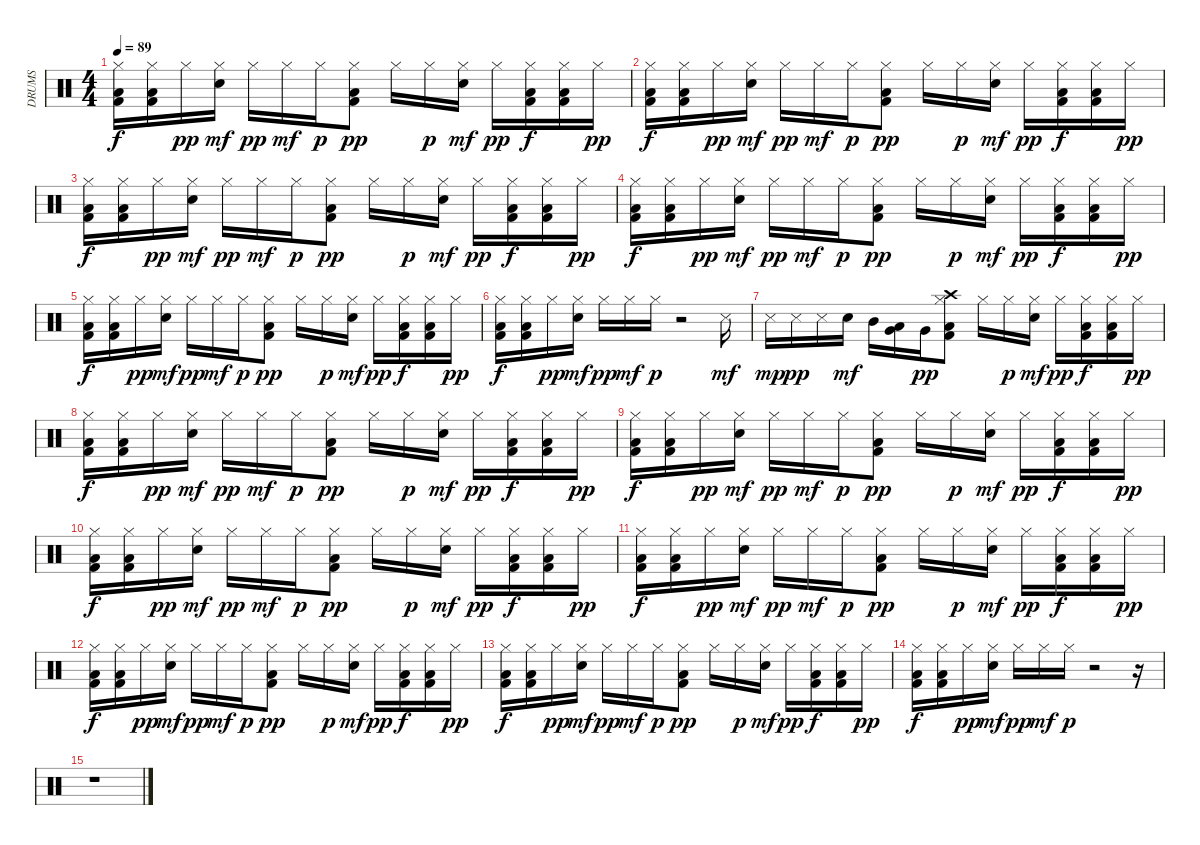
\track ("DRUMS" "DRUMS") {instrument percussion}
\staff {score}
\articulation defaults
\ts (4 4)
\tempo 89
\clef neutral
\ks c
("Kick (hit) 2" "Low Floor Tom (hit)" "Hi-Hat (closed)").16{dy f} ("Kick (hit) 2" "Low Floor Tom (hit)" "Hi-Hat (closed)").16 "Hi-Hat (closed)".16{dy pp} ("Hand Clap (hit)" "Hi-Hat (closed)").16{dy mf} "Hi-Hat (closed)".16{dy pp} "Hi-Hat (closed)".16{dy mf} "Hi-Hat (closed)".16{dy p} ("Hi-Hat (closed)" "Kick (hit) 2" "Low Floor Tom (hit)").8{dy pp} "Hi-Hat (closed)".16 "Hi-Hat (closed)".16{dy p} ("Hand Clap (hit)" "Hi-Hat (closed)").16{dy mf} "Hi-Hat (closed)".16{dy pp} ("Kick (hit) 2" "Low Floor Tom (hit)" "Hi-Hat (closed)").16{dy f} ("Kick (hit) 2" "Low Floor Tom (hit)" "Hi-Hat (closed)").16 "Hi-Hat (closed)".16{dy pp} |
("Kick (hit) 2" "Low Floor Tom (hit)" "Hi-Hat (closed)").16{dy f} ("Kick (hit) 2" "Low Floor Tom (hit)" "Hi-Hat (closed)").16 "Hi-Hat (closed)".16{dy pp} ("Hand Clap (hit)" "Hi-Hat (closed)").16{dy mf} "Hi-Hat (closed)".16{dy pp} "Hi-Hat (closed)".16{dy mf} "Hi-Hat (closed)".16{dy p} ("Hi-Hat (closed)" "Kick (hit) 2" "Low Floor Tom (hit)").8{dy pp} "Hi-Hat (closed)".16 "Hi-Hat (closed)".16{dy p} ("Hand Clap (hit)" "Hi-Hat (closed)").16{dy mf} "Hi-Hat (closed)".16{dy pp} ("Kick (hit) 2" "Low Floor Tom (hit)" "Hi-Hat (closed)").16{dy f} ("Kick (hit) 2" "Low Floor Tom (hit)" "Hi-Hat (closed)").16 "Hi-Hat (closed)".16{dy pp} |
("Kick (hit) 2" "Low Floor Tom (hit)" "Hi-Hat (closed)").16{dy f} ("Kick (hit) 2" "Low Floor Tom (hit)" "Hi-Hat (closed)").16 "Hi-Hat (closed)".16{dy pp} ("Hand Clap (hit)" "Hi-Hat (closed)").16{dy mf} "Hi-Hat (closed)".16{dy pp} "Hi-Hat (closed)".16{dy mf} "Hi-Hat (closed)".16{dy p} ("Hi-Hat (closed)" "Kick (hit) 2" "Low Floor Tom (hit)").8{dy pp} "Hi-Hat (closed)".16 "Hi-Hat (closed)".16{dy p} ("Hand Clap (hit)" "Hi-Hat (closed)").16{dy mf} "Hi-Hat (closed)".16{dy pp} ("Kick (hit) 2" "Low Floor Tom (hit)" "Hi-Hat (closed)").16{dy f} ("Kick (hit) 2" "Low Floor Tom (hit)" "Hi-Hat (closed)").16 "Hi-Hat (closed)".16{dy pp} |
("Kick (hit) 2" "Low Floor Tom (hit)" "Hi-Hat (closed)").16{dy f} ("Kick (hit) 2" "Low Floor Tom (hit)" "Hi-Hat (closed)").16 "Hi-Hat (closed)".16{dy pp} ("Hand Clap (hit)" "Hi-Hat (closed)").16{dy mf} "Hi-Hat (closed)".16{dy pp} "Hi-Hat (closed)".16{dy mf} "Hi-Hat (closed)".16{dy p} ("Hi-Hat (closed)" "Kick (hit) 2" "Low Floor Tom (hit)").8{dy pp} "Hi-Hat (closed)".16 "Hi-Hat (closed)".16{dy p} ("Hand Clap (hit)" "Hi-Hat (closed)").16{dy mf} "Hi-Hat (closed)".16{dy pp} ("Kick (hit) 2" "Low Floor Tom (hit)" "Hi-Hat (closed)").16{dy f} ("Kick (hit) 2" "Low Floor Tom (hit)" "Hi-Hat (closed)").16 "Hi-Hat (closed)".16{dy pp} |
("Kick (hit) 2" "Low Floor Tom (hit)" "Hi-Hat (closed)").16{dy f} ("Kick (hit) 2" "Low Floor Tom (hit)" "Hi-Hat (closed)").16 "Hi-Hat (closed)".16{dy pp} ("Hand Clap (hit)" "Hi-Hat (closed)").16{dy mf} "Hi-Hat (closed)".16{dy pp} "Hi-Hat (closed)".16{dy mf} "Hi-Hat (closed)".16{dy p} ("Hi-Hat (closed)" "Kick (hit) 2" "Low Floor Tom (hit)").8{dy pp} "Hi-Hat (closed)".16 "Hi-Hat (closed)".16{dy p} ("Hand Clap (hit)" "Hi-Hat (closed)").16{dy mf} "Hi-Hat (closed)".16{dy pp} ("Kick (hit) 2" "Low Floor Tom (hit)" "Hi-Hat (closed)").16{dy f} ("Kick (hit) 2" "Low Floor Tom (hit)" "Hi-Hat (closed)").16 "Hi-Hat (closed)".16{dy pp} |
("Kick (hit) 2" "Low Floor Tom (hit)" "Hi-Hat (closed)").16{dy f} ("Kick (hit) 2" "Low Floor Tom (hit)" "Hi-Hat (closed)").16 "Hi-Hat (closed)".16{dy pp} ("Hand Clap (hit)" "Hi-Hat (closed)").16{dy mf} "Hi-Hat (closed)".16{dy pp} "Hi-Hat (closed)".16{dy mf} "Hi-Hat (closed)".16{dy p} r.2 "Snare (side stick) 3".16{dy mf} |
"Snare (side stick) 3".16{dy mp} "Snare (side stick) 3".16{dy pp} "Snare (side stick) 3".16 "Hand Clap (hit)".16{dy mf} "Mid Tom (hit)".16 ("Very Low Tom (hit)" "Low Tom (hit)").16 "Very Low Tom (hit)".16{dy pp} ("Hi-Hat (closed)" "Crash high (hit)" "Kick (hit) 2" "Low Floor Tom (hit)").8 "Hi-Hat (closed)".16 "Hi-Hat (closed)".16{dy p} ("Hand Clap (hit)" "Hi-Hat (closed)").16{dy mf} "Hi-Hat (closed)".16{dy pp} ("Kick (hit) 2" "Low Floor Tom (hit)" "Hi-Hat (closed)").16{dy f} ("Kick (hit) 2" "Low Floor Tom (hit)" "Hi-Hat (closed)").16 "Hi-Hat (closed)".16{dy pp} |
("Kick (hit) 2" "Low Floor Tom (hit)" "Hi-Hat (closed)").16{dy f} ("Kick (hit) 2" "Low Floor Tom (hit)" "Hi-Hat (closed)").16 "Hi-Hat (closed)".16{dy pp} ("Hand Clap (hit)" "Hi-Hat (closed)").16{dy mf} "Hi-Hat (closed)".16{dy pp} "Hi-Hat (closed)".16{dy mf} "Hi-Hat (closed)".16{dy p} ("Hi-Hat (closed)" "Kick (hit) 2" "Low Floor Tom (hit)").8{dy pp} "Hi-Hat (closed)".16 "Hi-Hat (closed)".16{dy p} ("Hand Clap (hit)" "Hi-Hat (closed)").16{dy mf} "Hi-Hat (closed)".16{dy pp} ("Kick (hit) 2" "Low Floor Tom (hit)" "Hi-Hat (closed)").16{dy f} ("Kick (hit) 2" "Low Floor Tom (hit)" "Hi-Hat (closed)").16 "Hi-Hat (closed)".16{dy pp} |
("Kick (hit) 2" "Low Floor Tom (hit)" "Hi-Hat (closed)").16{dy f} ("Kick (hit) 2" "Low Floor Tom (hit)" "Hi-Hat (closed)").16 "Hi-Hat (closed)".16{dy pp} ("Hand Clap (hit)" "Hi-Hat (closed)").16{dy mf} "Hi-Hat (closed)".16{dy pp} "Hi-Hat (closed)".16{dy mf} "Hi-Hat (closed)".16{dy p} ("Hi-Hat (closed)" "Kick (hit) 2" "Low Floor Tom (hit)").8{dy pp} "Hi-Hat (closed)".16 "Hi-Hat (closed)".16{dy p} ("Hand Clap (hit)" "Hi-Hat (closed)").16{dy mf} "Hi-Hat (closed)".16{dy pp} ("Kick (hit) 2" "Low Floor Tom (hit)" "Hi-Hat (closed)").16{dy f} ("Kick (hit) 2" "Low Floor Tom (hit)" "Hi-Hat (closed)").16 "Hi-Hat (closed)".16{dy pp} |
("Kick (hit) 2" "Low Floor Tom (hit)" "Hi-Hat (closed)").16{dy f} ("Kick (hit) 2" "Low Floor Tom (hit)" "Hi-Hat (closed)").16 "Hi-Hat (closed)".16{dy pp} ("Hand Clap (hit)" "Hi-Hat (closed)").16{dy mf} "Hi-Hat (closed)".16{dy pp} "Hi-Hat (closed)".16{dy mf} "Hi-Hat (closed)".16{dy p} ("Hi-Hat (closed)" "Kick (hit) 2" "Low Floor Tom (hit)").8{dy pp} "Hi-Hat (closed)".16 "Hi-Hat (closed)".16{dy p} ("Hand Clap (hit)" "Hi-Hat (closed)").16{dy mf} "Hi-Hat (closed)".16{dy pp} ("Kick (hit) 2" "Low Floor Tom (hit)" "Hi-Hat (closed)").16{dy f} ("Kick (hit) 2" "Low Floor Tom (hit)" "Hi-Hat (closed)").16 "Hi-Hat (closed)".16{dy pp} |
("Kick (hit) 2" "Low Floor Tom (hit)" "Hi-Hat (closed)").16{dy f} ("Kick (hit) 2" "Low Floor Tom (hit)" "Hi-Hat (closed)").16 "Hi-Hat (closed)".16{dy pp} ("Hand Clap (hit)" "Hi-Hat (closed)").16{dy mf} "Hi-Hat (closed)".16{dy pp} "Hi-Hat (closed)".16{dy mf} "Hi-Hat (closed)".16{dy p} ("Hi-Hat (closed)" "Kick (hit) 2" "Low Floor Tom (hit)").8{dy pp} "Hi-Hat (closed)".16 "Hi-Hat (closed)".16{dy p} ("Hand Clap (hit)" "Hi-Hat (closed)").16{dy mf} "Hi-Hat (closed)".16{dy pp} ("Kick (hit) 2" "Low Floor Tom (hit)" "Hi-Hat (closed)").16{dy f} ("Kick (hit) 2" "Low Floor Tom (hit)" "Hi-Hat (closed)").16 "Hi-Hat (closed)".16{dy pp} |
("Kick (hit) 2" "Low Floor Tom (hit)" "Hi-Hat (closed)").16{dy f} ("Kick (hit) 2" "Low Floor Tom (hit)" "Hi-Hat (closed)").16 "Hi-Hat (closed)".16{dy pp} ("Hand Clap (hit)" "Hi-Hat (closed)").16{dy mf} "Hi-Hat (closed)".16{dy pp} "Hi-Hat (closed)".16{dy mf} "Hi-Hat (closed)".16{dy p} ("Hi-Hat (closed)" "Kick (hit) 2" "Low Floor Tom (hit)").8{dy pp} "Hi-Hat (closed)".16 "Hi-Hat (closed)".16{dy p} ("Hand Clap (hit)" "Hi-Hat (closed)").16{dy mf} "Hi-Hat (closed)".16{dy pp} ("Kick (hit) 2" "Low Floor Tom (hit)" "Hi-Hat (closed)").16{dy f} ("Kick (hit) 2" "Low Floor Tom (hit)" "Hi-Hat (closed)").16 "Hi-Hat (closed)".16{dy pp} |
("Kick (hit) 2" "Low Floor Tom (hit)" "Hi-Hat (closed)").16{dy f} ("Kick (hit) 2" "Low Floor Tom (hit)" "Hi-Hat (closed)").16 "Hi-Hat (closed)".16{dy pp} ("Hand Clap (hit)" "Hi-Hat (closed)").16{dy mf} "Hi-Hat (closed)".16{dy pp} "Hi-Hat (closed)".16{dy mf} "Hi-Hat (closed)".16{dy p} ("Hi-Hat (closed)" "Kick (hit) 2" "Low Floor Tom (hit)").8{dy pp} "Hi-Hat (closed)".16 "Hi-Hat (closed)".16{dy p} ("Hand Clap (hit)" "Hi-Hat (closed)").16{dy mf} "Hi-Hat (closed)".16{dy pp} ("Kick (hit) 2" "Low Floor Tom (hit)" "Hi-Hat (closed)").16{dy f} ("Kick (hit) 2" "Low Floor Tom (hit)" "Hi-Hat (closed)").16 "Hi-Hat (closed)".16{dy pp} |
("Kick (hit) 2" "Low Floor Tom (hit)" "Hi-Hat (closed)").16{dy f} ("Kick (hit) 2" "Low Floor Tom (hit)" "Hi-Hat (closed)").16 "Hi-Hat (closed)".16{dy pp} ("Hand Clap (hit)" "Hi-Hat (closed)").16{dy mf} "Hi-Hat (closed)".16{dy pp} "Hi-Hat (closed)".16{dy mf} "Hi-Hat (closed)".16{dy p} r.2 r.16 |
r.1
